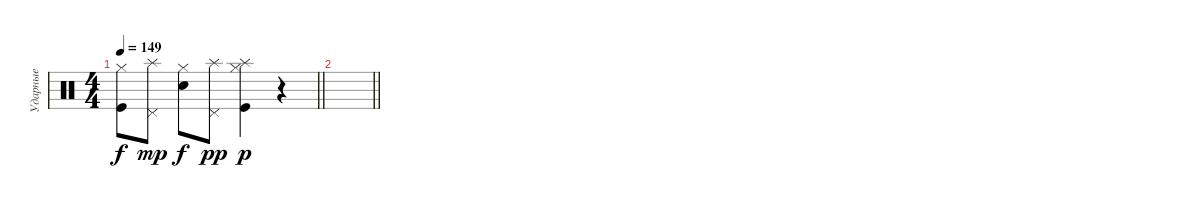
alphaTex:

\track ("Ударные" "Ударные") {instrument percussion}
\staff {score}
\articulation defaults
\ts (4 4)
\tempo 149
\clef neutral
\barLineRight lightlight
\ks c
("Hi-Hat (closed)" "Kick (hit)").8{dy f} ("Pedal Hi-Hat (hit)" "Splash (hit)").8{dy mp} ("Hi-Hat (closed)" "Snare (hit) 2").8{dy f} ("Pedal Hi-Hat (hit)" "Splash (hit)").8{dy pp} ("Hi-Hat (closed)" "Kick (hit)" "Splash (hit)").4{dy p} r.4 |
\barLineRight lightlight
